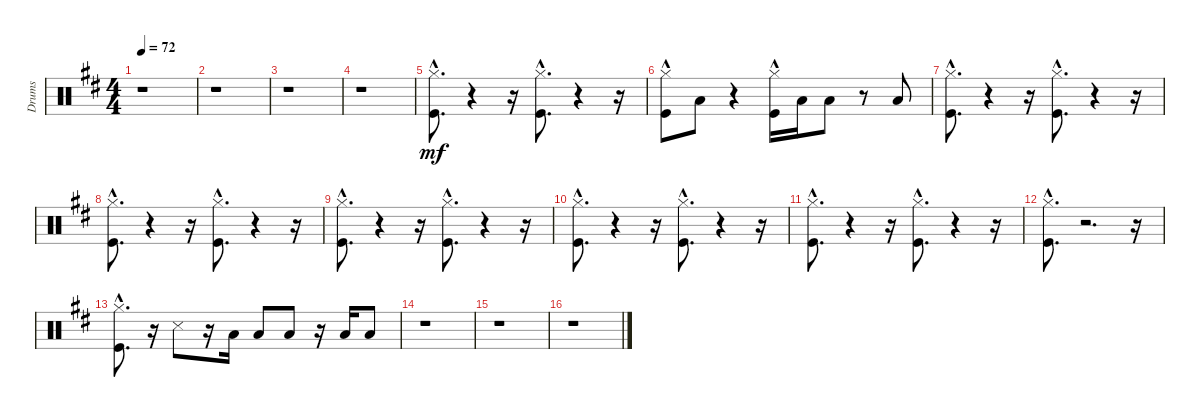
\track ("Drums" "Drums") {instrument percussion}
\staff {score}
\articulation defaults
\ts (4 4)
\tempo 72
\clef neutral
\ks d
r.1{dy mf} |
r.1 |
r.1 |
r.1 |
("Kick (hit)"{hac} "Hi-Hat (closed)"{hac}).8{d} r.4 r.16 ("Kick (hit)"{hac} "Hi-Hat (closed)"{hac}).8{d} r.4 r.16 |
("Kick (hit)"{hac} "Hi-Hat (closed)").8 "Low Floor Tom (hit)".8 r.4 ("Kick (hit)"{hac} "Hi-Hat (closed)").16 "Low Floor Tom (hit)".16 "Low Floor Tom (hit)".8 r.8 "Low Floor Tom (hit)".8 |
("Kick (hit)"{hac} "Hi-Hat (closed)"{hac}).8{d} r.4 r.16 ("Kick (hit)"{hac} "Hi-Hat (closed)"{hac}).8{d} r.4 r.16 |
("Kick (hit)"{hac} "Hi-Hat (closed)"{hac}).8{d} r.4 r.16 ("Kick (hit)"{hac} "Hi-Hat (closed)"{hac}).8{d} r.4 r.16 |
("Kick (hit)"{hac} "Hi-Hat (closed)"{hac}).8{d} r.4 r.16 ("Kick (hit)"{hac} "Hi-Hat (closed)"{hac}).8{d} r.4 r.16 |
("Kick (hit)"{hac} "Hi-Hat (closed)"{hac}).8{d} r.4 r.16 ("Kick (hit)"{hac} "Hi-Hat (closed)"{hac}).8{d} r.4 r.16 |
("Kick (hit)"{hac} "Hi-Hat (closed)"{hac}).8{d} r.4 r.16 ("Kick (hit)"{hac} "Hi-Hat (closed)"{hac}).8{d} r.4 r.16 |
("Kick (hit)"{hac} "Hi-Hat (closed)"{hac}).8{d} r.2{d} r.16 |
("Kick (hit)"{hac} "Hi-Hat (closed)"{hac}).8{d} r.16 "Snare (side stick) 3".8 r.16 "Low Tom (hit)".16 "Low Tom (hit)".8 "Low Floor Tom (hit)".8 r.16 "Low Floor Tom (hit)".16 "Low Tom (hit)".8 |
r.1 |
r.1 |
r.1
